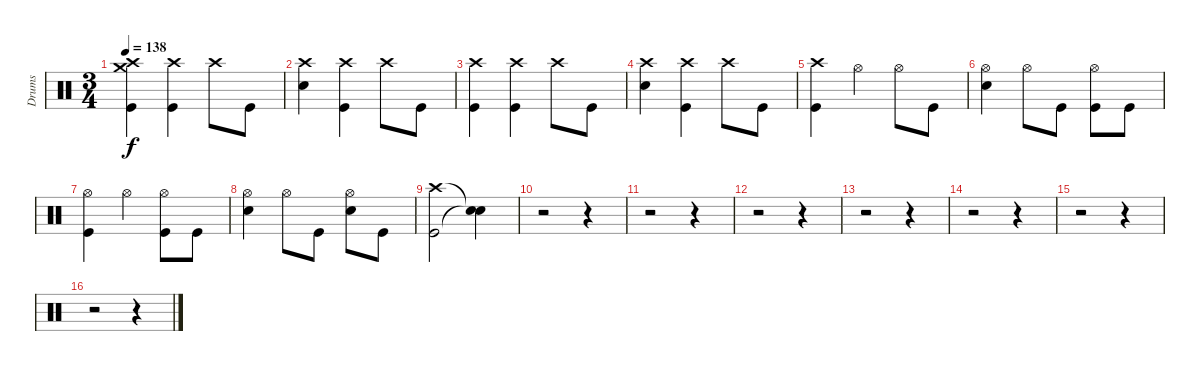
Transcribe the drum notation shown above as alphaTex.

\track ("Drums" "Drums") {instrument percussion}
\staff {score}
\articulation defaults
\ts (3 4)
\tempo 138
\clef neutral
\ks c
("Crash medium (hit)" "Crash high (hit)" "Kick (hit)").4{dy f} ("Crash high (hit)" "Kick (hit)").4 "Crash high (hit)".8 "Kick (hit)".8 |
("Crash high (hit)" "Snare (hit) 2").4 ("Crash high (hit)" "Kick (hit)").4 "Crash high (hit)".8 "Kick (hit)".8 |
("Crash high (hit)" "Kick (hit)").4 ("Crash high (hit)" "Kick (hit)").4 "Crash high (hit)".8 "Kick (hit)".8 |
("Crash high (hit)" "Snare (hit) 2").4 ("Crash high (hit)" "Kick (hit)").4 "Crash high (hit)".8 "Kick (hit)".8 |
("Crash high (hit)" "Kick (hit)").4 "Hi-Hat (open)".4 "Hi-Hat (open)".8 "Kick (hit)".8 |
("Hi-Hat (open)" "Snare (hit) 2").4 "Hi-Hat (open)".8 "Kick (hit)".8 ("Hi-Hat (open)" "Kick (hit)").8 "Kick (hit)".8 |
("Hi-Hat (open)" "Kick (hit)").4 "Hi-Hat (open)".4 ("Hi-Hat (open)" "Kick (hit)").8 "Kick (hit)".8 |
("Hi-Hat (open)" "Snare (hit) 2").4 "Hi-Hat (open)".8 "Kick (hit)".8 ("Hi-Hat (open)" "Snare (hit) 2").8 "Kick (hit)".8 |
("Crash high (hit)" "Kick (hit)").2 ("Snare (hit)"{t} "Snare (hit)"{t}).4 |
r.2 r.4 |
r.2 r.4 |
r.2 r.4 |
r.2 r.4 |
r.2 r.4 |
r.2 r.4 |
r.2 r.4
